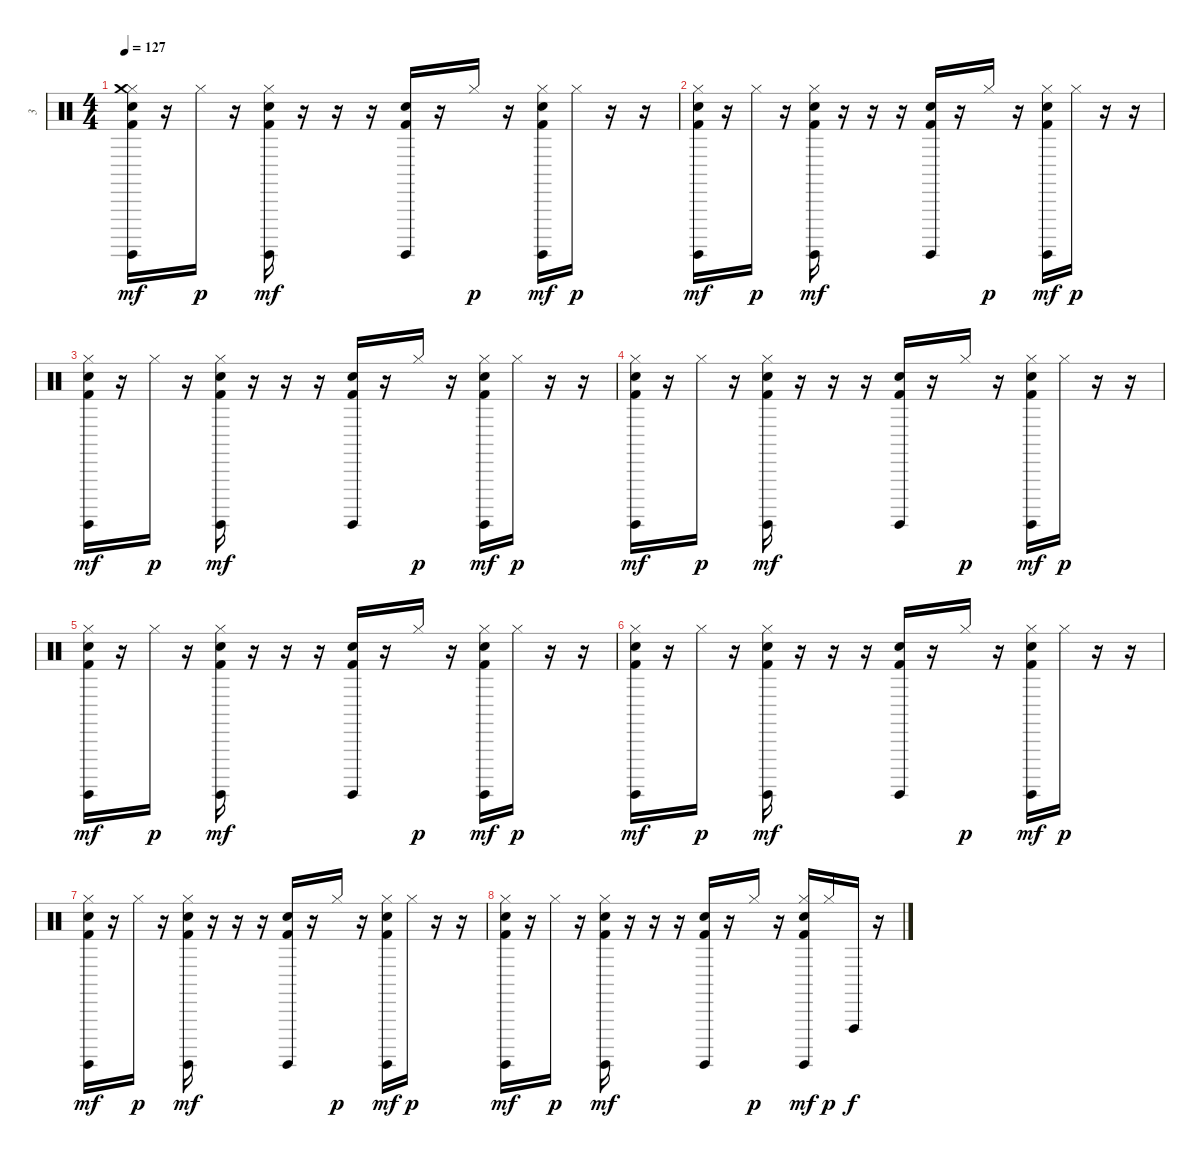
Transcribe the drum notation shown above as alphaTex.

\track ("3" "3") {instrument percussion}
\staff {score}
\articulation defaults
\ts (4 4)
\tempo 127
\clef neutral
\ks c
("Hi-Hat (closed)" "Crash medium (hit)" "Surdo (hit)" "Kick (hit) 2" "Hand Clap (hit)").16{dy mf} r.16 "Hi-Hat (closed)".16{dy p} r.16 ("Hi-Hat (closed)" "Surdo (hit)" "Kick (hit) 2" "Hand Clap (hit)").16{dy mf} r.16 r.16 r.16 ("Surdo (hit)" "Kick (hit) 2" "Hand Clap (hit)").16 r.16 "Hi-Hat (closed)".16{dy p} r.16 ("Hi-Hat (closed)" "Surdo (hit)" "Kick (hit) 2" "Hand Clap (hit)").16{dy mf} "Hi-Hat (closed)".16{dy p} r.16 r.16 |
("Hi-Hat (closed)" "Surdo (hit)" "Kick (hit) 2" "Hand Clap (hit)").16{dy mf} r.16 "Hi-Hat (closed)".16{dy p} r.16 ("Hi-Hat (closed)" "Surdo (hit)" "Kick (hit) 2" "Hand Clap (hit)").16{dy mf} r.16 r.16 r.16 ("Surdo (hit)" "Kick (hit) 2" "Hand Clap (hit)").16 r.16 "Hi-Hat (closed)".16{dy p} r.16 ("Hi-Hat (closed)" "Surdo (hit)" "Kick (hit) 2" "Hand Clap (hit)").16{dy mf} "Hi-Hat (closed)".16{dy p} r.16 r.16 |
("Hi-Hat (closed)" "Surdo (hit)" "Kick (hit) 2" "Hand Clap (hit)").16{dy mf} r.16 "Hi-Hat (closed)".16{dy p} r.16 ("Hi-Hat (closed)" "Surdo (hit)" "Kick (hit) 2" "Hand Clap (hit)").16{dy mf} r.16 r.16 r.16 ("Surdo (hit)" "Kick (hit) 2" "Hand Clap (hit)").16 r.16 "Hi-Hat (closed)".16{dy p} r.16 ("Hi-Hat (closed)" "Surdo (hit)" "Kick (hit) 2" "Hand Clap (hit)").16{dy mf} "Hi-Hat (closed)".16{dy p} r.16 r.16 |
("Hi-Hat (closed)" "Surdo (hit)" "Kick (hit) 2" "Hand Clap (hit)").16{dy mf} r.16 "Hi-Hat (closed)".16{dy p} r.16 ("Hi-Hat (closed)" "Surdo (hit)" "Kick (hit) 2" "Hand Clap (hit)").16{dy mf} r.16 r.16 r.16 ("Surdo (hit)" "Kick (hit) 2" "Hand Clap (hit)").16 r.16 "Hi-Hat (closed)".16{dy p} r.16 ("Hi-Hat (closed)" "Surdo (hit)" "Kick (hit) 2" "Hand Clap (hit)").16{dy mf} "Hi-Hat (closed)".16{dy p} r.16 r.16 |
("Hi-Hat (closed)" "Surdo (hit)" "Kick (hit) 2" "Hand Clap (hit)").16{dy mf} r.16 "Hi-Hat (closed)".16{dy p} r.16 ("Hi-Hat (closed)" "Surdo (hit)" "Kick (hit) 2" "Hand Clap (hit)").16{dy mf} r.16 r.16 r.16 ("Surdo (hit)" "Kick (hit) 2" "Hand Clap (hit)").16 r.16 "Hi-Hat (closed)".16{dy p} r.16 ("Hi-Hat (closed)" "Surdo (hit)" "Kick (hit) 2" "Hand Clap (hit)").16{dy mf} "Hi-Hat (closed)".16{dy p} r.16 r.16 |
("Hi-Hat (closed)" "Surdo (hit)" "Kick (hit) 2" "Hand Clap (hit)").16{dy mf} r.16 "Hi-Hat (closed)".16{dy p} r.16 ("Hi-Hat (closed)" "Surdo (hit)" "Kick (hit) 2" "Hand Clap (hit)").16{dy mf} r.16 r.16 r.16 ("Surdo (hit)" "Kick (hit) 2" "Hand Clap (hit)").16 r.16 "Hi-Hat (closed)".16{dy p} r.16 ("Hi-Hat (closed)" "Surdo (hit)" "Kick (hit) 2" "Hand Clap (hit)").16{dy mf} "Hi-Hat (closed)".16{dy p} r.16 r.16 |
("Hi-Hat (closed)" "Surdo (hit)" "Kick (hit) 2" "Hand Clap (hit)").16{dy mf} r.16 "Hi-Hat (closed)".16{dy p} r.16 ("Hi-Hat (closed)" "Surdo (hit)" "Kick (hit) 2" "Hand Clap (hit)").16{dy mf} r.16 r.16 r.16 ("Surdo (hit)" "Kick (hit) 2" "Hand Clap (hit)").16 r.16 "Hi-Hat (closed)".16{dy p} r.16 ("Hi-Hat (closed)" "Surdo (hit)" "Kick (hit) 2" "Hand Clap (hit)").16{dy mf} "Hi-Hat (closed)".16{dy p} r.16 r.16 |
("Hi-Hat (closed)" "Surdo (hit)" "Kick (hit) 2" "Hand Clap (hit)").16{dy mf} r.16 "Hi-Hat (closed)".16{dy p} r.16 ("Hi-Hat (closed)" "Surdo (hit)" "Kick (hit) 2" "Hand Clap (hit)").16{dy mf} r.16 r.16 r.16 ("Surdo (hit)" "Kick (hit) 2" "Hand Clap (hit)").16 r.16 "Hi-Hat (closed)".16{dy p} r.16 ("Hi-Hat (closed)" "Surdo (hit)" "Kick (hit) 2" "Hand Clap (hit)").16{dy mf} "Hi-Hat (closed)".16{dy p} "Vibraslap (hit)".16{dy f} r.16
